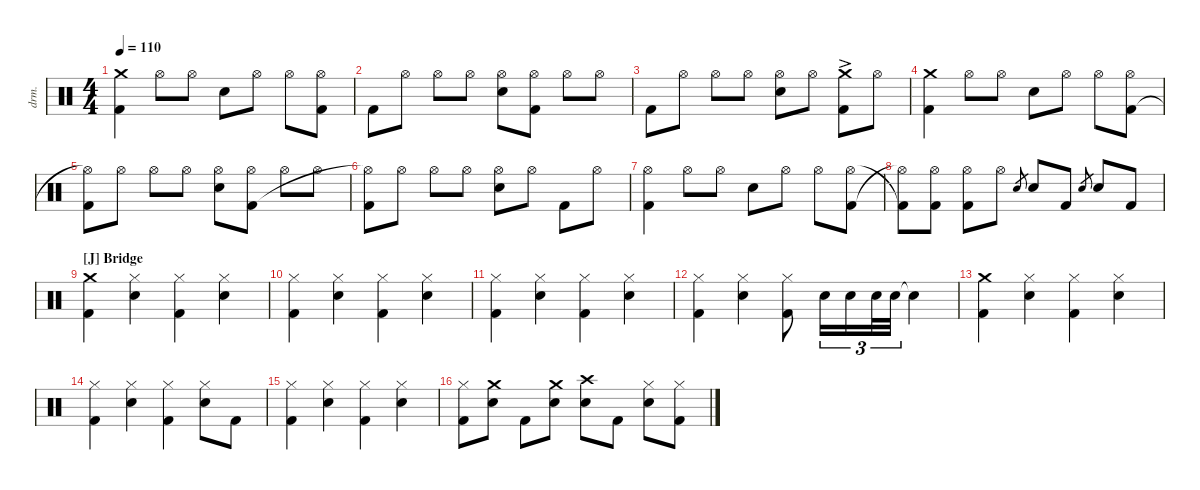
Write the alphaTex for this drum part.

\defaultSystemsLayout 4
\hideDynamics
\bracketExtendMode nobrackets
\otherSystemsTrackNameOrientation horizontal
\track ("Drums" "drm.") {instrument percussion}
\staff {score}
\articulation defaults
\ts (4 4)
\tempo 110
\clef neutral
\ks aminor
("Kick (hit) 2" "Crash medium (hit)").4{dy f beam Down} "Hi-Hat (open)".8{beam Down} "Hi-Hat (open)".8{beam Down} "Snare (hit) 2".8{beam Down} "Hi-Hat (open)".8{beam Down} "Hi-Hat (open)".8{beam Down} ("Hi-Hat (open)" "Kick (hit) 2").8{beam Down} |
"Kick (hit) 2".8{beam Down} "Hi-Hat (open)".8{beam Down} "Hi-Hat (open)".8{beam Down} "Hi-Hat (open)".8{beam Down} ("Snare (hit) 2" "Hi-Hat (open)").8{beam Down} ("Hi-Hat (open)" "Kick (hit) 2").8{beam Down} "Hi-Hat (open)".8{beam Down} "Hi-Hat (open)".8{beam Down} |
"Kick (hit) 2".8{beam Down} "Hi-Hat (open)".8{beam Down} "Hi-Hat (open)".8{beam Down} "Hi-Hat (open)".8{beam Down} ("Hi-Hat (open)" "Snare (hit) 2").8{beam Down} "Hi-Hat (open)".8{beam Down} ("Kick (hit) 2"{ac} "Crash medium (hit)"{ac}).8{beam Down} "Hi-Hat (open)".8{beam Down} |
("Kick (hit) 2" "Crash medium (hit)").4{beam Down} "Hi-Hat (open)".8{beam Down} "Hi-Hat (open)".8{beam Down} "Snare (hit) 2".8{beam Down} "Hi-Hat (open)".8{beam Down} "Hi-Hat (open)".8{beam Down} ("Hi-Hat (open)" "Kick (hit) 2").8{beam Down} |
("Kick (hit) 2" "Hi-Hat (open)"{t}).8{beam Down} "Hi-Hat (open)".8{beam Down} "Hi-Hat (open)".8{beam Down} "Hi-Hat (open)".8{beam Down} ("Snare (hit) 2" "Hi-Hat (open)").8{beam Down} ("Hi-Hat (open)" "Kick (hit) 2").8{beam Down} "Hi-Hat (open)".8{beam Down} "Hi-Hat (open)".8{beam Down} |
("Kick (hit) 2" "Hi-Hat (open)"{t}).8{beam Down} "Hi-Hat (open)".8{beam Down} "Hi-Hat (open)".8{beam Down} "Hi-Hat (open)".8{beam Down} ("Hi-Hat (open)" "Snare (hit) 2").8{beam Down} "Hi-Hat (open)".8{beam Down} "Kick (hit) 2".8{beam Down} "Hi-Hat (open)".8{beam Down} |
("Kick (hit) 2" "Hi-Hat (open)").4{beam Down} "Hi-Hat (open)".8{beam Down} "Hi-Hat (open)".8{beam Down} "Snare (hit) 2".8{beam Down} "Hi-Hat (open)".8{beam Down} "Hi-Hat (open)".8{beam Down} ("Hi-Hat (open)" "Kick (hit) 2").8{beam Down} |
("Kick (hit) 2"{t} "Hi-Hat (open)"{t}).8{beam Down} ("Hi-Hat (open)" "Kick (hit) 2").8{beam Down} ("Hi-Hat (open)" "Kick (hit) 2").8{beam Down} "Hi-Hat (open)".8{beam Down} "Snare (hit) 2".8{gr beam Up} "Snare (hit) 2".8{beam Up} "Kick (hit) 2".8{beam Up} "Snare (hit) 2".8{gr beam Up} "Snare (hit) 2".8{beam Up} "Kick (hit) 2".8{beam Up} |
\section ("J" "Bridge")
("Kick (hit) 2" "Crash medium (hit)").4{beam Down} ("Hi-Hat (closed)" "Snare (hit) 2").4{beam Down} ("Hi-Hat (closed)" "Kick (hit) 2").4{beam Down} ("Snare (hit) 2" "Hi-Hat (closed)").4{beam Down} |
("Kick (hit) 2" "Hi-Hat (closed)").4{beam Down} ("Hi-Hat (closed)" "Snare (hit) 2").4{beam Down} ("Hi-Hat (closed)" "Kick (hit) 2").4{beam Down} ("Snare (hit) 2" "Hi-Hat (closed)").4{beam Down} |
("Kick (hit) 2" "Hi-Hat (closed)").4{beam Down} ("Hi-Hat (closed)" "Snare (hit) 2").4{beam Down} ("Hi-Hat (closed)" "Kick (hit) 2").4{beam Down} ("Snare (hit) 2" "Hi-Hat (closed)").4{beam Down} |
("Kick (hit) 2" "Hi-Hat (closed)").4{beam Down} ("Hi-Hat (closed)" "Snare (hit) 2").4{beam Down} ("Kick (hit) 2" "Hi-Hat (closed)").8{beam Down} "Snare (hit) 2".16{tu (3 2) beam Down} "Snare (hit) 2".16{tu (3 2) beam Down} "Snare (hit) 2".32{tu (3 2) beam Down} "Snare (hit) 2".32{tu (3 2) beam Down} "Snare (hit) 2"{t}.4{beam Down} |
("Kick (hit) 2" "Crash medium (hit)").4{beam Down} ("Hi-Hat (closed)" "Snare (hit) 2").4{beam Down} ("Hi-Hat (closed)" "Kick (hit) 2").4{beam Down} ("Snare (hit) 2" "Hi-Hat (closed)").4{beam Down} |
("Kick (hit) 2" "Hi-Hat (closed)").4{beam Down} ("Snare (hit) 2" "Hi-Hat (closed)").4{beam Down} ("Kick (hit) 2" "Hi-Hat (closed)").4{beam Down} ("Snare (hit) 2" "Hi-Hat (closed)").8{beam Down} "Kick (hit) 2".8{beam Down} |
("Kick (hit) 2" "Hi-Hat (closed)").4{beam Down} ("Hi-Hat (closed)" "Snare (hit) 2").4{beam Down} ("Hi-Hat (closed)" "Kick (hit) 2").4{beam Down} ("Snare (hit) 2" "Hi-Hat (closed)").4{beam Down} |
("Kick (hit) 2" "Hi-Hat (closed)").8{beam Down} ("Snare (hit) 2" "Crash medium (hit)").8{beam Down} "Kick (hit) 2".8{beam Down} ("Snare (hit) 2" "Crash medium (hit)").8{beam Down} ("Crash high (hit)" "Snare (hit) 2").8{beam Down} "Kick (hit) 2".8{beam Down} ("Snare (hit) 2" "Hi-Hat (closed)").8{beam Down} ("Kick (hit) 2" "Hi-Hat (closed)").8{beam Down}
